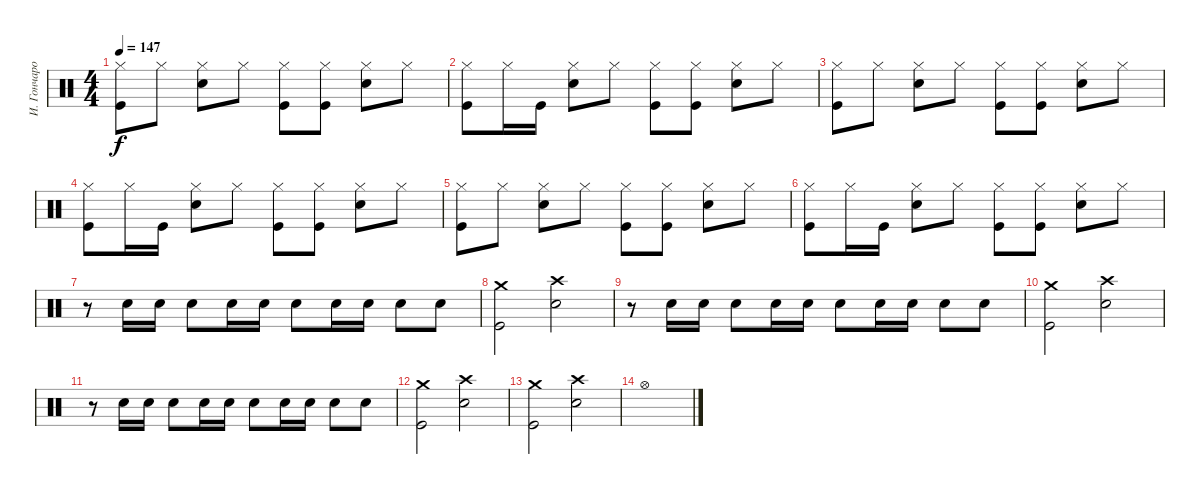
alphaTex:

\track ("И. Гончаров" "И. Гончаро") {instrument percussion}
\staff {score}
\articulation defaults
\ts (4 4)
\tempo 147
\clef neutral
\ks c
("Hi-Hat (closed)" "Kick (hit)").8{dy f} "Hi-Hat (closed)".8 ("Hi-Hat (closed)" "Snare (hit) 2").8 "Hi-Hat (closed)".8 ("Hi-Hat (closed)" "Kick (hit)").8 ("Hi-Hat (closed)" "Kick (hit)").8 ("Hi-Hat (closed)" "Snare (hit) 2").8 "Hi-Hat (closed)".8 |
("Hi-Hat (closed)" "Kick (hit)").8 "Hi-Hat (closed)".16 "Kick (hit)".16 ("Hi-Hat (closed)" "Snare (hit) 2").8 "Hi-Hat (closed)".8 ("Hi-Hat (closed)" "Kick (hit)").8 ("Hi-Hat (closed)" "Kick (hit)").8 ("Hi-Hat (closed)" "Snare (hit) 2").8 "Hi-Hat (closed)".8 |
("Hi-Hat (closed)" "Kick (hit)").8 "Hi-Hat (closed)".8 ("Hi-Hat (closed)" "Snare (hit) 2").8 "Hi-Hat (closed)".8 ("Hi-Hat (closed)" "Kick (hit)").8 ("Hi-Hat (closed)" "Kick (hit)").8 ("Hi-Hat (closed)" "Snare (hit) 2").8 "Hi-Hat (closed)".8 |
("Hi-Hat (closed)" "Kick (hit)").8 "Hi-Hat (closed)".16 "Kick (hit)".16 ("Hi-Hat (closed)" "Snare (hit) 2").8 "Hi-Hat (closed)".8 ("Hi-Hat (closed)" "Kick (hit)").8 ("Hi-Hat (closed)" "Kick (hit)").8 ("Hi-Hat (closed)" "Snare (hit) 2").8 "Hi-Hat (closed)".8 |
("Hi-Hat (closed)" "Kick (hit)").8 "Hi-Hat (closed)".8 ("Hi-Hat (closed)" "Snare (hit) 2").8 "Hi-Hat (closed)".8 ("Hi-Hat (closed)" "Kick (hit)").8 ("Hi-Hat (closed)" "Kick (hit)").8 ("Hi-Hat (closed)" "Snare (hit) 2").8 "Hi-Hat (closed)".8 |
("Hi-Hat (closed)" "Kick (hit)").8 "Hi-Hat (closed)".16 "Kick (hit)".16 ("Hi-Hat (closed)" "Snare (hit) 2").8 "Hi-Hat (closed)".8 ("Hi-Hat (closed)" "Kick (hit)").8 ("Hi-Hat (closed)" "Kick (hit)").8 ("Hi-Hat (closed)" "Snare (hit) 2").8 "Hi-Hat (closed)".8 |
r.8 "Snare (hit) 2".16 "Snare (hit) 2".16 "Snare (hit) 2".8 "Snare (hit) 2".16 "Snare (hit) 2".16 "Snare (hit) 2".8 "Snare (hit) 2".16 "Snare (hit) 2".16 "Snare (hit) 2".8 "Snare (hit) 2".8 |
("Crash medium (hit)" "Kick (hit)").2 ("Crash high (hit)" "Snare (hit) 2").2 |
r.8 "Snare (hit) 2".16 "Snare (hit) 2".16 "Snare (hit) 2".8 "Snare (hit) 2".16 "Snare (hit) 2".16 "Snare (hit) 2".8 "Snare (hit) 2".16 "Snare (hit) 2".16 "Snare (hit) 2".8 "Snare (hit) 2".8 |
("Crash medium (hit)" "Kick (hit)").2 ("Crash high (hit)" "Snare (hit) 2").2 |
r.8 "Snare (hit) 2".16 "Snare (hit) 2".16 "Snare (hit) 2".8 "Snare (hit) 2".16 "Snare (hit) 2".16 "Snare (hit) 2".8 "Snare (hit) 2".16 "Snare (hit) 2".16 "Snare (hit) 2".8 "Snare (hit) 2".8 |
("Crash medium (hit)" "Kick (hit)").2 ("Crash high (hit)" "Snare (hit) 2").2 |
("Crash medium (hit)" "Kick (hit)").2 ("Crash high (hit)" "Snare (hit) 2").2 |
"Hi-Hat (open)".1
